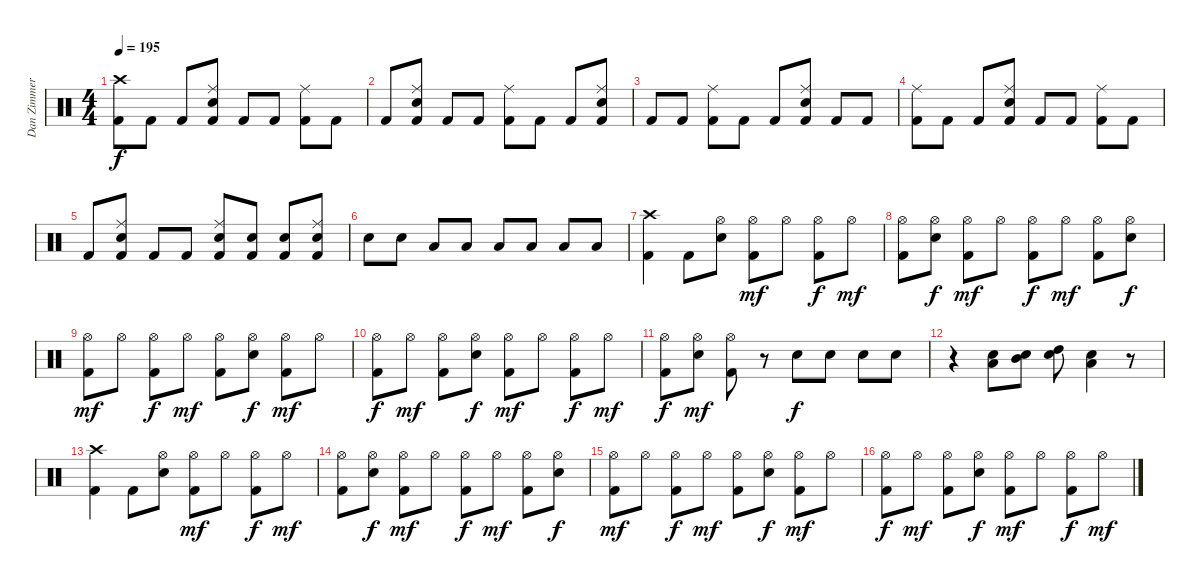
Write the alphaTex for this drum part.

\track ("Dan Zimmermann" "Dan Zimmer") {instrument percussion}
\staff {score}
\articulation defaults
\ts (4 4)
\tempo 195
\clef neutral
\ks c
("Crash high (hit)" "Kick (hit) 2").8{dy f} "Kick (hit) 2".8 "Kick (hit) 2".8 ("Ride (middle)" "Electric Snare (hit)" "Kick (hit) 2").8 "Kick (hit) 2".8 "Kick (hit) 2".8 ("Ride (middle)" "Kick (hit) 2").8 "Kick (hit) 2".8 |
"Kick (hit) 2".8 ("Ride (middle)" "Electric Snare (hit)" "Kick (hit) 2").8 "Kick (hit) 2".8 "Kick (hit) 2".8 ("Ride (middle)" "Kick (hit) 2").8 "Kick (hit) 2".8 "Kick (hit) 2".8 ("Ride (middle)" "Electric Snare (hit)" "Kick (hit) 2").8 |
"Kick (hit) 2".8 "Kick (hit) 2".8 ("Ride (middle)" "Kick (hit) 2").8 "Kick (hit) 2".8 "Kick (hit) 2".8 ("Ride (middle)" "Electric Snare (hit)" "Kick (hit) 2").8 "Kick (hit) 2".8 "Kick (hit) 2".8 |
("Ride (middle)" "Kick (hit) 2").8 "Kick (hit) 2".8 "Kick (hit) 2".8 ("Ride (middle)" "Electric Snare (hit)" "Kick (hit) 2").8 "Kick (hit) 2".8 "Kick (hit) 2".8 ("Ride (middle)" "Kick (hit) 2").8 "Kick (hit) 2".8 |
"Kick (hit) 2".8 ("Ride (middle)" "Electric Snare (hit)" "Kick (hit) 2").8 "Kick (hit) 2".8 "Kick (hit) 2".8 ("Ride (middle)" "Electric Snare (hit)" "Kick (hit) 2").8 ("Electric Snare (hit)" "Kick (hit) 2").8 ("Electric Snare (hit)" "Kick (hit) 2").8 ("Ride (middle)" "Electric Snare (hit)" "Kick (hit) 2").8 |
"Electric Snare (hit)".8 "Electric Snare (hit)".8 "Low Tom (hit)".8 "Low Tom (hit)".8 "Low Tom (hit)".8 "Low Floor Tom (hit)".8 "Low Floor Tom (hit)".8 "Low Floor Tom (hit)".8 |
("Crash high (hit)" "Kick (hit) 2").4 "Kick (hit) 2".8 ("Hi-Hat (open)" "Electric Snare (hit)").8 ("Hi-Hat (open)" "Kick (hit) 2").8{dy mf} "Hi-Hat (open)".8 ("Hi-Hat (open)" "Kick (hit) 2").8{dy f} "Hi-Hat (open)".8{dy mf} |
("Hi-Hat (open)" "Kick (hit) 2").8 ("Hi-Hat (open)" "Electric Snare (hit)").8{dy f} ("Hi-Hat (open)" "Kick (hit) 2").8{dy mf} "Hi-Hat (open)".8 ("Hi-Hat (open)" "Kick (hit) 2").8{dy f} "Hi-Hat (open)".8{dy mf} ("Hi-Hat (open)" "Kick (hit) 2").8 ("Hi-Hat (open)" "Electric Snare (hit)").8{dy f} |
("Hi-Hat (open)" "Kick (hit) 2").8{dy mf} "Hi-Hat (open)".8 ("Hi-Hat (open)" "Kick (hit) 2").8{dy f} "Hi-Hat (open)".8{dy mf} ("Hi-Hat (open)" "Kick (hit) 2").8 ("Hi-Hat (open)" "Electric Snare (hit)").8{dy f} ("Hi-Hat (open)" "Kick (hit) 2").8{dy mf} "Hi-Hat (open)".8 |
("Hi-Hat (open)" "Kick (hit) 2").8{dy f} "Hi-Hat (open)".8{dy mf} ("Hi-Hat (open)" "Kick (hit) 2").8 ("Hi-Hat (open)" "Electric Snare (hit)").8{dy f} ("Hi-Hat (open)" "Kick (hit) 2").8{dy mf} "Hi-Hat (open)".8 ("Hi-Hat (open)" "Kick (hit) 2").8{dy f} "Hi-Hat (open)".8{dy mf} |
("Hi-Hat (open)" "Kick (hit) 2").8{dy f} ("Hi-Hat (open)" "Electric Snare (hit)").8{dy mf} ("Hi-Hat (open)" "Kick (hit) 2").8 r.8 "Electric Snare (hit)".8{dy f} "Electric Snare (hit)".8 "Electric Snare (hit)".8 "Electric Snare (hit)".8 |
r.4 ("Low Tom (hit)" "Electric Snare (hit)").8 ("Mid Tom (hit)" "Electric Snare (hit)").8 ("High Tom (hit)" "Electric Snare (hit)").8 ("Low Tom (hit)" "Electric Snare (hit)").4 r.8 |
("Crash high (hit)" "Kick (hit) 2").4 "Kick (hit) 2".8 ("Hi-Hat (open)" "Electric Snare (hit)").8 ("Hi-Hat (open)" "Kick (hit) 2").8{dy mf} "Hi-Hat (open)".8 ("Hi-Hat (open)" "Kick (hit) 2").8{dy f} "Hi-Hat (open)".8{dy mf} |
("Hi-Hat (open)" "Kick (hit) 2").8 ("Hi-Hat (open)" "Electric Snare (hit)").8{dy f} ("Hi-Hat (open)" "Kick (hit) 2").8{dy mf} "Hi-Hat (open)".8 ("Hi-Hat (open)" "Kick (hit) 2").8{dy f} "Hi-Hat (open)".8{dy mf} ("Hi-Hat (open)" "Kick (hit) 2").8 ("Hi-Hat (open)" "Electric Snare (hit)").8{dy f} |
("Hi-Hat (open)" "Kick (hit) 2").8{dy mf} "Hi-Hat (open)".8 ("Hi-Hat (open)" "Kick (hit) 2").8{dy f} "Hi-Hat (open)".8{dy mf} ("Hi-Hat (open)" "Kick (hit) 2").8 ("Hi-Hat (open)" "Electric Snare (hit)").8{dy f} ("Hi-Hat (open)" "Kick (hit) 2").8{dy mf} "Hi-Hat (open)".8 |
("Hi-Hat (open)" "Kick (hit) 2").8{dy f} "Hi-Hat (open)".8{dy mf} ("Hi-Hat (open)" "Kick (hit) 2").8 ("Hi-Hat (open)" "Electric Snare (hit)").8{dy f} ("Hi-Hat (open)" "Kick (hit) 2").8{dy mf} "Hi-Hat (open)".8 ("Hi-Hat (open)" "Kick (hit) 2").8{dy f} "Hi-Hat (open)".8{dy mf}
